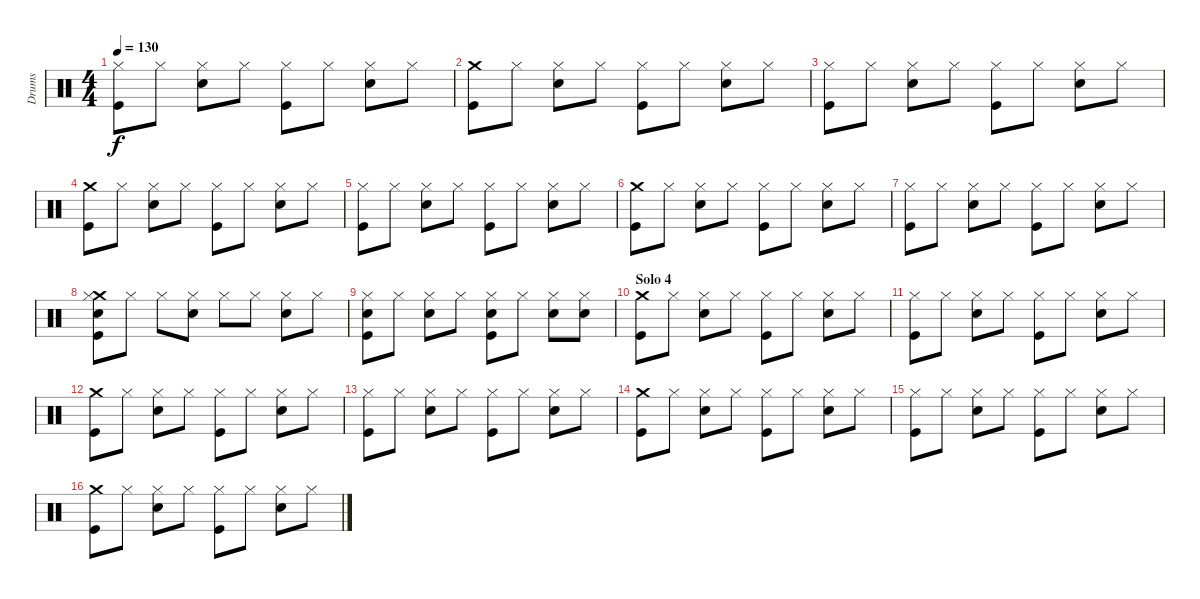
\track ("Drums" "Drums") {instrument percussion}
\staff {score}
\articulation defaults
\ts (4 4)
\tempo 130
\clef neutral
\ks c
("Hi-Hat (closed)" "Kick (hit)").8{dy f} "Hi-Hat (closed)".8 ("Snare (hit) 2" "Hi-Hat (closed)").8 "Hi-Hat (closed)".8 ("Hi-Hat (closed)" "Kick (hit)").8 "Hi-Hat (closed)".8 ("Snare (hit) 2" "Hi-Hat (closed)").8 "Hi-Hat (closed)".8 |
("Crash medium (hit)" "Kick (hit)").8 "Hi-Hat (closed)".8 ("Snare (hit) 2" "Hi-Hat (closed)").8 "Hi-Hat (closed)".8 ("Hi-Hat (closed)" "Kick (hit)").8 "Hi-Hat (closed)".8 ("Snare (hit) 2" "Hi-Hat (closed)").8 "Hi-Hat (closed)".8 |
("Hi-Hat (closed)" "Kick (hit)").8 "Hi-Hat (closed)".8 ("Snare (hit) 2" "Hi-Hat (closed)").8 "Hi-Hat (closed)".8 ("Hi-Hat (closed)" "Kick (hit)").8 "Hi-Hat (closed)".8 ("Snare (hit) 2" "Hi-Hat (closed)").8 "Hi-Hat (closed)".8 |
("Crash medium (hit)" "Kick (hit)").8 "Hi-Hat (closed)".8 ("Snare (hit) 2" "Hi-Hat (closed)").8 "Hi-Hat (closed)".8 ("Hi-Hat (closed)" "Kick (hit)").8 "Hi-Hat (closed)".8 ("Snare (hit) 2" "Hi-Hat (closed)").8 "Hi-Hat (closed)".8 |
("Hi-Hat (closed)" "Kick (hit)").8 "Hi-Hat (closed)".8 ("Snare (hit) 2" "Hi-Hat (closed)").8 "Hi-Hat (closed)".8 ("Hi-Hat (closed)" "Kick (hit)").8 "Hi-Hat (closed)".8 ("Snare (hit) 2" "Hi-Hat (closed)").8 "Hi-Hat (closed)".8 |
("Crash medium (hit)" "Kick (hit)").8 "Hi-Hat (closed)".8 ("Snare (hit) 2" "Hi-Hat (closed)").8 "Hi-Hat (closed)".8 ("Hi-Hat (closed)" "Kick (hit)").8 "Hi-Hat (closed)".8 ("Snare (hit) 2" "Hi-Hat (closed)").8 "Hi-Hat (closed)".8 |
("Hi-Hat (closed)" "Kick (hit)").8 "Hi-Hat (closed)".8 ("Snare (hit) 2" "Hi-Hat (closed)").8 "Hi-Hat (closed)".8 ("Hi-Hat (closed)" "Kick (hit)").8 "Hi-Hat (closed)".8 ("Snare (hit) 2" "Hi-Hat (closed)").8 "Hi-Hat (closed)".8 |
("Crash medium (hit)" "Snare (hit) 2" "Hi-Hat (closed)" "Kick (hit)").8 "Hi-Hat (closed)".8 "Hi-Hat (closed)".8 ("Snare (hit) 2" "Hi-Hat (closed)").8 "Hi-Hat (closed)".8 "Hi-Hat (closed)".8 ("Snare (hit) 2" "Hi-Hat (closed)").8 "Hi-Hat (closed)".8 |
("Snare (hit) 2" "Hi-Hat (closed)" "Kick (hit)").8 "Hi-Hat (closed)".8 ("Snare (hit) 2" "Hi-Hat (closed)").8 "Hi-Hat (closed)".8 ("Snare (hit) 2" "Hi-Hat (closed)" "Kick (hit)").8 "Hi-Hat (closed)".8 ("Snare (hit) 2" "Hi-Hat (closed)").8 ("Snare (hit) 2" "Hi-Hat (closed)").8 |
\section ("" "Solo 4")
("Crash medium (hit)" "Kick (hit)").8 "Hi-Hat (closed)".8 ("Snare (hit) 2" "Hi-Hat (closed)").8 "Hi-Hat (closed)".8 ("Hi-Hat (closed)" "Kick (hit)").8 "Hi-Hat (closed)".8 ("Snare (hit) 2" "Hi-Hat (closed)").8 "Hi-Hat (closed)".8 |
("Hi-Hat (closed)" "Kick (hit)").8 "Hi-Hat (closed)".8 ("Snare (hit) 2" "Hi-Hat (closed)").8 "Hi-Hat (closed)".8 ("Hi-Hat (closed)" "Kick (hit)").8 "Hi-Hat (closed)".8 ("Snare (hit) 2" "Hi-Hat (closed)").8 "Hi-Hat (closed)".8 |
("Crash medium (hit)" "Kick (hit)").8 "Hi-Hat (closed)".8 ("Snare (hit) 2" "Hi-Hat (closed)").8 "Hi-Hat (closed)".8 ("Hi-Hat (closed)" "Kick (hit)").8 "Hi-Hat (closed)".8 ("Snare (hit) 2" "Hi-Hat (closed)").8 "Hi-Hat (closed)".8 |
("Hi-Hat (closed)" "Kick (hit)").8 "Hi-Hat (closed)".8 ("Snare (hit) 2" "Hi-Hat (closed)").8 "Hi-Hat (closed)".8 ("Hi-Hat (closed)" "Kick (hit)").8 "Hi-Hat (closed)".8 ("Snare (hit) 2" "Hi-Hat (closed)").8 "Hi-Hat (closed)".8 |
("Crash medium (hit)" "Kick (hit)").8 "Hi-Hat (closed)".8 ("Snare (hit) 2" "Hi-Hat (closed)").8 "Hi-Hat (closed)".8 ("Hi-Hat (closed)" "Kick (hit)").8 "Hi-Hat (closed)".8 ("Snare (hit) 2" "Hi-Hat (closed)").8 "Hi-Hat (closed)".8 |
("Hi-Hat (closed)" "Kick (hit)").8 "Hi-Hat (closed)".8 ("Snare (hit) 2" "Hi-Hat (closed)").8 "Hi-Hat (closed)".8 ("Hi-Hat (closed)" "Kick (hit)").8 "Hi-Hat (closed)".8 ("Snare (hit) 2" "Hi-Hat (closed)").8 "Hi-Hat (closed)".8 |
("Crash medium (hit)" "Kick (hit)").8 "Hi-Hat (closed)".8 ("Snare (hit) 2" "Hi-Hat (closed)").8 "Hi-Hat (closed)".8 ("Hi-Hat (closed)" "Kick (hit)").8 "Hi-Hat (closed)".8 ("Snare (hit) 2" "Hi-Hat (closed)").8 "Hi-Hat (closed)".8
